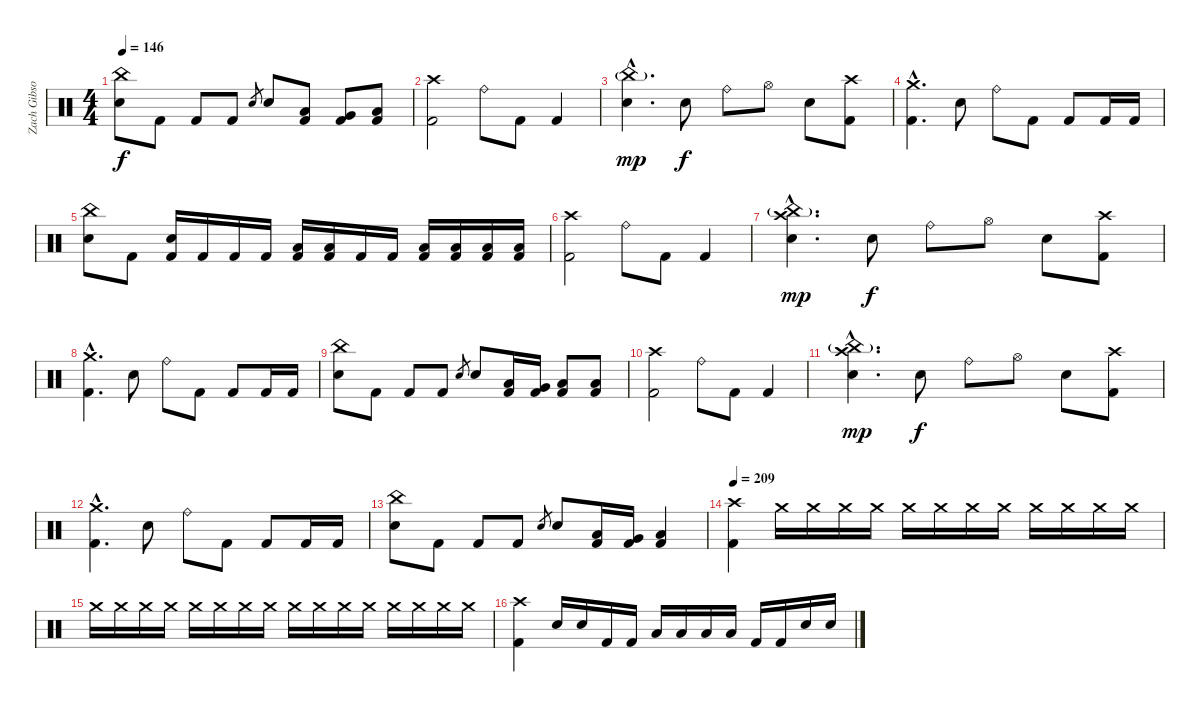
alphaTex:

\track ("Zach Gibson (Drums)" "Zach Gibso") {instrument percussion}
\staff {score}
\articulation defaults
\ts (4 4)
\tempo 146
\clef neutral
\ks c
("China (hit)" "Snare (hit) 2").8{dy f} "Kick (hit) 2".8 "Kick (hit) 2".8 "Kick (hit) 2".8 "Snare (hit) 2".8{gr} "Snare (hit) 2".8 ("Low Tom (hit)" "Kick (hit) 2").8 ("Very Low Tom (hit)" "Kick (hit) 2").8 ("Low Floor Tom (hit)" "Kick (hit) 2").8 |
("Crash high (hit)" "Kick (hit) 2").2 "Ride (bell)".8 "Kick (hit) 2".8 "Kick (hit) 2".4 |
("China (hit)"{g hac} "Snare (hit) 2"{hac}).4{d dy mp} "Snare (hit) 2".8{dy f} "Ride (bell)".8 "Hi-Hat (open)".8 "Snare (hit) 2".8 ("Crash high (hit)" "Kick (hit) 2").8 |
("Crash medium (hit)"{hac} "Kick (hit) 2"{hac}).4{d} "Snare (hit) 2".8 "Ride (bell)".8 "Kick (hit) 2".8 "Kick (hit) 2".8 "Kick (hit) 2".16 "Kick (hit) 2".16 |
("China (hit)" "Snare (hit) 2").8 "Kick (hit) 2".8 ("Snare (hit) 2" "Kick (hit) 2").16 "Kick (hit) 2".16 "Kick (hit) 2".16 "Kick (hit) 2".16 ("Low Tom (hit)" "Kick (hit) 2").16 ("Low Tom (hit)" "Kick (hit) 2").16 "Kick (hit) 2".16 "Kick (hit) 2".16 ("Low Floor Tom (hit)" "Kick (hit) 2").16 ("Low Floor Tom (hit)" "Kick (hit) 2").16 ("Low Floor Tom (hit)" "Kick (hit) 2").16 ("Low Floor Tom (hit)" "Kick (hit) 2").16 |
("Crash high (hit)" "Kick (hit) 2").2 "Ride (bell)".8 "Kick (hit) 2".8 "Kick (hit) 2".4 |
("Crash high (hit)"{hac} "China (hit)"{g hac} "Snare (hit) 2"{hac}).4{d dy mp} "Snare (hit) 2".8{dy f} "Ride (bell)".8 "Hi-Hat (open)".8 "Snare (hit) 2".8 ("Crash high (hit)" "Kick (hit) 2").8 |
("Crash medium (hit)"{hac} "Kick (hit) 2"{hac}).4{d} "Snare (hit) 2".8 "Ride (bell)".8 "Kick (hit) 2".8 "Kick (hit) 2".8 "Kick (hit) 2".16 "Kick (hit) 2".16 |
("China (hit)" "Snare (hit) 2").8 "Kick (hit) 2".8 "Kick (hit) 2".8 "Kick (hit) 2".8 "Snare (hit) 2".8{gr} "Snare (hit) 2".8 ("Low Tom (hit)" "Kick (hit) 2").16 ("Very Low Tom (hit)" "Kick (hit) 2").16 ("Low Floor Tom (hit)" "Kick (hit) 2").8 ("Low Floor Tom (hit)" "Kick (hit) 2").8 |
("Crash high (hit)" "Kick (hit) 2").2 "Ride (bell)".8 "Kick (hit) 2".8 "Kick (hit) 2".4 |
("Crash high (hit)"{hac} "China (hit)"{g hac} "Snare (hit) 2"{hac}).4{d dy mp} "Snare (hit) 2".8{dy f} "Ride (bell)".8 "Hi-Hat (open)".8 "Snare (hit) 2".8 ("Crash high (hit)" "Kick (hit) 2").8 |
("Crash medium (hit)"{hac} "Kick (hit) 2"{hac}).4{d} "Snare (hit) 2".8 "Ride (bell)".8 "Kick (hit) 2".8 "Kick (hit) 2".8 "Kick (hit) 2".16 "Kick (hit) 2".16 |
("China (hit)" "Snare (hit) 2").8 "Kick (hit) 2".8 "Kick (hit) 2".8 "Kick (hit) 2".8 "Snare (hit) 2".8{gr} "Snare (hit) 2".8 ("Low Tom (hit)" "Kick (hit) 2").16 ("Very Low Tom (hit)" "Kick (hit) 2").16 ("Low Floor Tom (hit)" "Kick (hit) 2").4 |
\tempo 209
("Crash high (hit)" "Kick (hit) 2").4 "Crash medium (hit)".16 "Crash medium (hit)".16 "Crash medium (hit)".16 "Crash medium (hit)".16 "Crash medium (hit)".16 "Crash medium (hit)".16 "Crash medium (hit)".16 "Crash medium (hit)".16 "Crash medium (hit)".16 "Crash medium (hit)".16 "Crash medium (hit)".16 "Crash medium (hit)".16 |
"Crash medium (hit)".16 "Crash medium (hit)".16 "Crash medium (hit)".16 "Crash medium (hit)".16 "Crash medium (hit)".16 "Crash medium (hit)".16 "Crash medium (hit)".16 "Crash medium (hit)".16 "Crash medium (hit)".16 "Crash medium (hit)".16 "Crash medium (hit)".16 "Crash medium (hit)".16 "Crash medium (hit)".16 "Crash medium (hit)".16 "Crash medium (hit)".16 "Crash medium (hit)".16 |
("Crash high (hit)" "Kick (hit) 2").4 "Snare (hit) 2".16 "Snare (hit) 2".16 "Kick (hit) 2".16 "Kick (hit) 2".16 "Low Tom (hit)".16 "Low Tom (hit)".16 "Low Tom (hit)".16 "Low Tom (hit)".16 "Kick (hit) 2".16 "Kick (hit) 2".16 "Snare (hit) 2".16 "Snare (hit) 2".16
